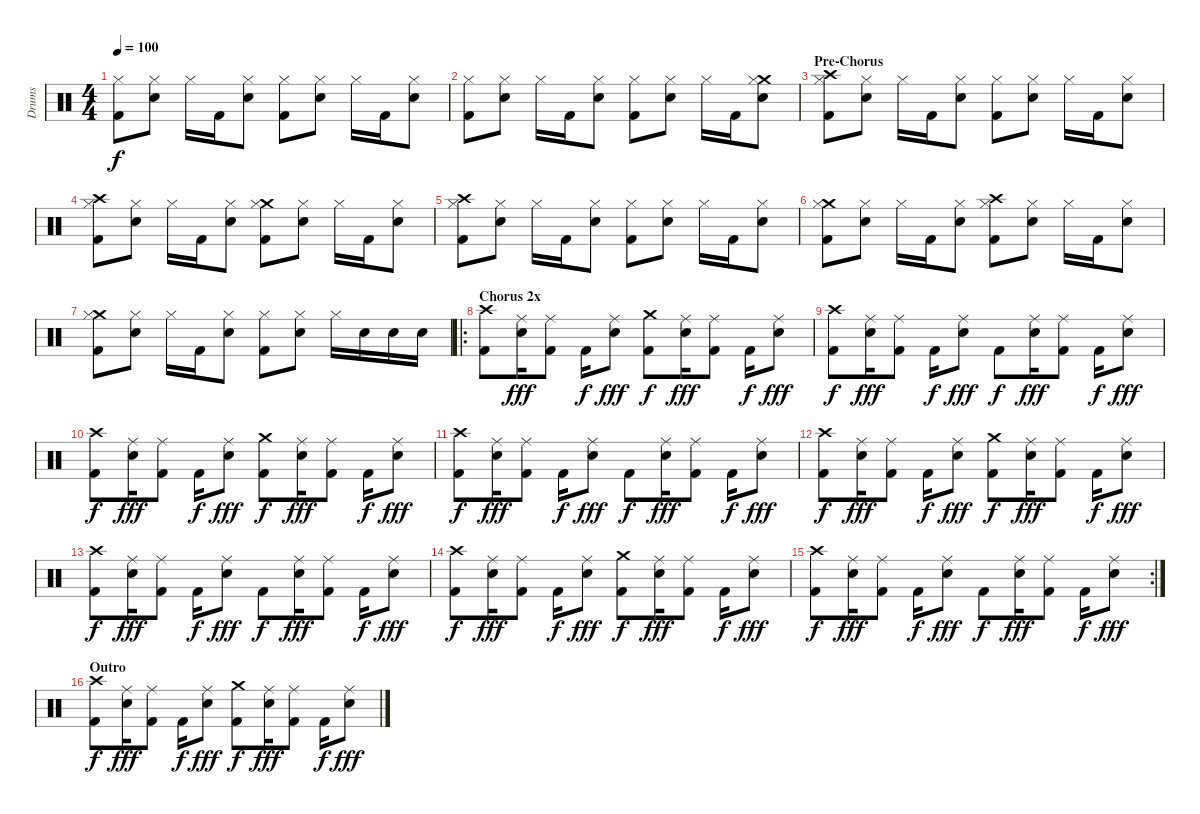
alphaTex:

\track ("Drums" "Drums") {instrument percussion}
\staff {score}
\articulation defaults
\ts (4 4)
\tempo 100
\clef neutral
\ks c
("Hi-Hat (closed)" "Kick (hit) 2").8{dy f} ("Hi-Hat (closed)" "Snare (hit) 2").8 "Hi-Hat (closed)".16 "Kick (hit) 2".16 ("Hi-Hat (closed)" "Snare (hit) 2").8 ("Hi-Hat (closed)" "Kick (hit) 2").8 ("Hi-Hat (closed)" "Snare (hit) 2").8 "Hi-Hat (closed)".16 "Kick (hit) 2".16 ("Hi-Hat (closed)" "Snare (hit) 2").8 |
("Hi-Hat (closed)" "Kick (hit) 2").8 ("Hi-Hat (closed)" "Snare (hit) 2").8 "Hi-Hat (closed)".16 "Kick (hit) 2".16 ("Hi-Hat (closed)" "Snare (hit) 2").8 ("Hi-Hat (closed)" "Kick (hit) 2").8 ("Hi-Hat (closed)" "Snare (hit) 2").8 "Hi-Hat (closed)".16 "Kick (hit) 2".16 ("Crash medium (hit)" "Hi-Hat (closed)" "Snare (hit) 2").8 |
\section ("" "Pre-Chorus")
("Crash high (hit)" "Hi-Hat (closed)" "Kick (hit) 2").8 ("Hi-Hat (closed)" "Snare (hit) 2").8 "Hi-Hat (closed)".16 "Kick (hit) 2".16 ("Hi-Hat (closed)" "Snare (hit) 2").8 ("Hi-Hat (closed)" "Kick (hit) 2").8 ("Hi-Hat (closed)" "Snare (hit) 2").8 "Hi-Hat (closed)".16 "Kick (hit) 2".16 ("Hi-Hat (closed)" "Snare (hit) 2").8 |
("Crash high (hit)" "Hi-Hat (closed)" "Kick (hit) 2").8 ("Hi-Hat (closed)" "Snare (hit) 2").8 "Hi-Hat (closed)".16 "Kick (hit) 2".16 ("Hi-Hat (closed)" "Snare (hit) 2").8 ("Crash medium (hit)" "Hi-Hat (closed)" "Kick (hit) 2").8 ("Hi-Hat (closed)" "Snare (hit) 2").8 "Hi-Hat (closed)".16 "Kick (hit) 2".16 ("Hi-Hat (closed)" "Snare (hit) 2").8 |
("Crash high (hit)" "Hi-Hat (closed)" "Kick (hit) 2").8 ("Hi-Hat (closed)" "Snare (hit) 2").8 "Hi-Hat (closed)".16 "Kick (hit) 2".16 ("Hi-Hat (closed)" "Snare (hit) 2").8 ("Hi-Hat (closed)" "Kick (hit) 2").8 ("Hi-Hat (closed)" "Snare (hit) 2").8 "Hi-Hat (closed)".16 "Kick (hit) 2".16 ("Hi-Hat (closed)" "Snare (hit) 2").8 |
("Crash medium (hit)" "Hi-Hat (closed)" "Kick (hit) 2").8 ("Hi-Hat (closed)" "Snare (hit) 2").8 "Hi-Hat (closed)".16 "Kick (hit) 2".16 ("Hi-Hat (closed)" "Snare (hit) 2").8 ("Crash high (hit)" "Hi-Hat (closed)" "Kick (hit) 2").8 ("Hi-Hat (closed)" "Snare (hit) 2").8 "Hi-Hat (closed)".16 "Kick (hit) 2".16 ("Hi-Hat (closed)" "Snare (hit) 2").8 |
("Crash medium (hit)" "Hi-Hat (closed)" "Kick (hit) 2").8 ("Hi-Hat (closed)" "Snare (hit) 2").8 "Hi-Hat (closed)".16 "Kick (hit) 2".16 ("Hi-Hat (closed)" "Snare (hit) 2").8 ("Hi-Hat (closed)" "Kick (hit) 2").8 ("Hi-Hat (closed)" "Snare (hit) 2").8 "Hi-Hat (closed)".16 "Snare (hit) 2".16 "Snare (hit) 2".16 "Snare (hit) 2".16 |
\ro
\section ("" "Chorus 2x")
("Crash high (hit)" "Kick (hit) 2").8 ("Ride (middle)" "Snare (hit) 2").16{dy fff} ("Ride (middle)" "Kick (hit) 2").8 "Kick (hit) 2".16{dy f} ("Ride (middle)" "Snare (hit) 2").8{dy fff} ("Crash medium (hit)" "Kick (hit) 2").8{dy f} ("Ride (middle)" "Snare (hit) 2").16{dy fff} ("Ride (middle)" "Kick (hit) 2").8 "Kick (hit) 2".16{dy f} ("Ride (middle)" "Snare (hit) 2").8{dy fff} |
("Crash high (hit)" "Kick (hit) 2").8{dy f} ("Ride (middle)" "Snare (hit) 2").16{dy fff} ("Ride (middle)" "Kick (hit) 2").8 "Kick (hit) 2".16{dy f} ("Ride (middle)" "Snare (hit) 2").8{dy fff} "Kick (hit) 2".8{dy f} ("Ride (middle)" "Snare (hit) 2").16{dy fff} ("Ride (middle)" "Kick (hit) 2").8 "Kick (hit) 2".16{dy f} ("Ride (middle)" "Snare (hit) 2").8{dy fff} |
("Crash high (hit)" "Kick (hit) 2").8{dy f} ("Ride (middle)" "Snare (hit) 2").16{dy fff} ("Ride (middle)" "Kick (hit) 2").8 "Kick (hit) 2".16{dy f} ("Ride (middle)" "Snare (hit) 2").8{dy fff} ("Crash medium (hit)" "Kick (hit) 2").8{dy f} ("Ride (middle)" "Snare (hit) 2").16{dy fff} ("Ride (middle)" "Kick (hit) 2").8 "Kick (hit) 2".16{dy f} ("Ride (middle)" "Snare (hit) 2").8{dy fff} |
("Crash high (hit)" "Kick (hit) 2").8{dy f} ("Ride (middle)" "Snare (hit) 2").16{dy fff} ("Ride (middle)" "Kick (hit) 2").8 "Kick (hit) 2".16{dy f} ("Ride (middle)" "Snare (hit) 2").8{dy fff} "Kick (hit) 2".8{dy f} ("Ride (middle)" "Snare (hit) 2").16{dy fff} ("Ride (middle)" "Kick (hit) 2").8 "Kick (hit) 2".16{dy f} ("Ride (middle)" "Snare (hit) 2").8{dy fff} |
("Crash high (hit)" "Kick (hit) 2").8{dy f} ("Ride (middle)" "Snare (hit) 2").16{dy fff} ("Ride (middle)" "Kick (hit) 2").8 "Kick (hit) 2".16{dy f} ("Ride (middle)" "Snare (hit) 2").8{dy fff} ("Crash medium (hit)" "Kick (hit) 2").8{dy f} ("Ride (middle)" "Snare (hit) 2").16{dy fff} ("Ride (middle)" "Kick (hit) 2").8 "Kick (hit) 2".16{dy f} ("Ride (middle)" "Snare (hit) 2").8{dy fff} |
("Crash high (hit)" "Kick (hit) 2").8{dy f} ("Ride (middle)" "Snare (hit) 2").16{dy fff} ("Ride (middle)" "Kick (hit) 2").8 "Kick (hit) 2".16{dy f} ("Ride (middle)" "Snare (hit) 2").8{dy fff} "Kick (hit) 2".8{dy f} ("Ride (middle)" "Snare (hit) 2").16{dy fff} ("Ride (middle)" "Kick (hit) 2").8 "Kick (hit) 2".16{dy f} ("Ride (middle)" "Snare (hit) 2").8{dy fff} |
("Crash high (hit)" "Kick (hit) 2").8{dy f} ("Ride (middle)" "Snare (hit) 2").16{dy fff} ("Ride (middle)" "Kick (hit) 2").8 "Kick (hit) 2".16{dy f} ("Ride (middle)" "Snare (hit) 2").8{dy fff} ("Crash medium (hit)" "Kick (hit) 2").8{dy f} ("Ride (middle)" "Snare (hit) 2").16{dy fff} ("Ride (middle)" "Kick (hit) 2").8 "Kick (hit) 2".16{dy f} ("Ride (middle)" "Snare (hit) 2").8{dy fff} |
\rc 2
("Crash high (hit)" "Kick (hit) 2").8{dy f} ("Ride (middle)" "Snare (hit) 2").16{dy fff} ("Ride (middle)" "Kick (hit) 2").8 "Kick (hit) 2".16{dy f} ("Ride (middle)" "Snare (hit) 2").8{dy fff} "Kick (hit) 2".8{dy f} ("Ride (middle)" "Snare (hit) 2").16{dy fff} ("Ride (middle)" "Kick (hit) 2").8 "Kick (hit) 2".16{dy f} ("Ride (middle)" "Snare (hit) 2").8{dy fff} |
\section ("" "Outro")
("Crash high (hit)" "Kick (hit) 2").8{dy f} ("Ride (middle)" "Snare (hit) 2").16{dy fff} ("Ride (middle)" "Kick (hit) 2").8 "Kick (hit) 2".16{dy f} ("Ride (middle)" "Snare (hit) 2").8{dy fff} ("Crash medium (hit)" "Kick (hit) 2").8{dy f} ("Ride (middle)" "Snare (hit) 2").16{dy fff} ("Ride (middle)" "Kick (hit) 2").8 "Kick (hit) 2".16{dy f} ("Ride (middle)" "Snare (hit) 2").8{dy fff}
